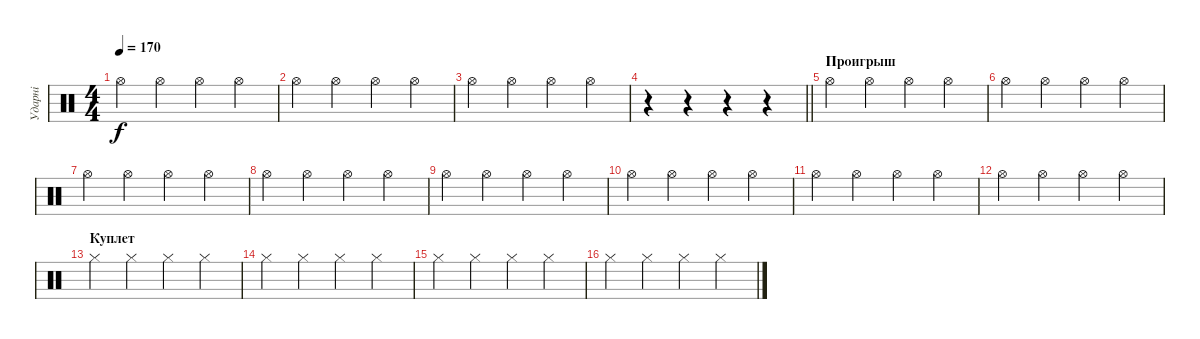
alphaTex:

\track ("Ударні" "Ударні") {instrument percussion}
\staff {score}
\articulation defaults
\ts (4 4)
\tempo 170
\clef neutral
\ks c "Hi-Hat (open)".4{dy f} "Hi-Hat (open)".4 "Hi-Hat (open)".4 "Hi-Hat (open)".4
|
"Hi-Hat (open)".4 "Hi-Hat (open)".4 "Hi-Hat (open)".4 "Hi-Hat (open)".4 |
"Hi-Hat (open)".4 "Hi-Hat (open)".4 "Hi-Hat (open)".4 "Hi-Hat (open)".4 |
\barLineRight lightlight
r.4 r.4 r.4 r.4 |
\section ("" "Проигрыш")
"Hi-Hat (open)".4 "Hi-Hat (open)".4 "Hi-Hat (open)".4 "Hi-Hat (open)".4 |
"Hi-Hat (open)".4 "Hi-Hat (open)".4 "Hi-Hat (open)".4 "Hi-Hat (open)".4 |
"Hi-Hat (open)".4 "Hi-Hat (open)".4 "Hi-Hat (open)".4 "Hi-Hat (open)".4 |
"Hi-Hat (open)".4 "Hi-Hat (open)".4 "Hi-Hat (open)".4 "Hi-Hat (open)".4 |
"Hi-Hat (open)".4 "Hi-Hat (open)".4 "Hi-Hat (open)".4 "Hi-Hat (open)".4 |
"Hi-Hat (open)".4 "Hi-Hat (open)".4 "Hi-Hat (open)".4 "Hi-Hat (open)".4 |
"Hi-Hat (open)".4 "Hi-Hat (open)".4 "Hi-Hat (open)".4 "Hi-Hat (open)".4 |
"Hi-Hat (open)".4 "Hi-Hat (open)".4 "Hi-Hat (open)".4 "Hi-Hat (open)".4 |
\section ("" "Куплет")
"Hi-Hat (closed)".4 "Hi-Hat (closed)".4 "Hi-Hat (closed)".4 "Hi-Hat (closed)".4 |
"Hi-Hat (closed)".4 "Hi-Hat (closed)".4 "Hi-Hat (closed)".4 "Hi-Hat (closed)".4 |
"Hi-Hat (closed)".4 "Hi-Hat (closed)".4 "Hi-Hat (closed)".4 "Hi-Hat (closed)".4 |
"Hi-Hat (closed)".4 "Hi-Hat (closed)".4 "Hi-Hat (closed)".4 "Hi-Hat (closed)".4
